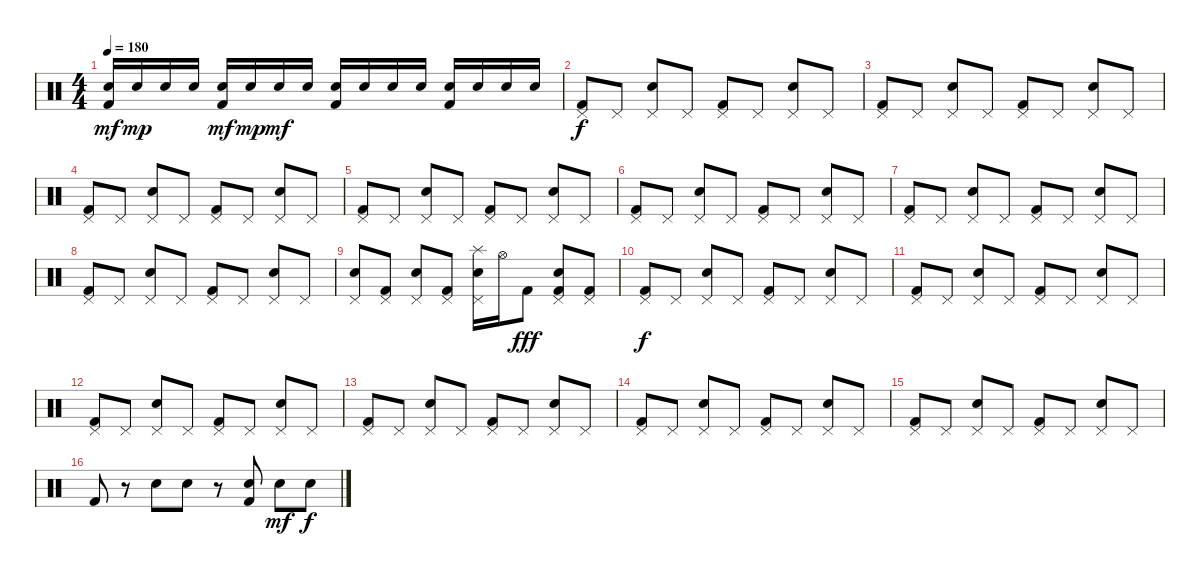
\track "" {instrument percussion}
\staff {score}
\articulation defaults
\ts (4 4)
\tempo 180
\clef neutral
\ks c
("Kick (hit) 2" "Snare (hit) 2").16{dy mf} "Snare (hit) 2".16{dy mp} "Snare (hit) 2".16 "Snare (hit) 2".16 ("Kick (hit) 2" "Snare (hit) 2").16{dy mf} "Snare (hit) 2".16{dy mp} "Snare (hit) 2".16{dy mf} "Snare (hit) 2".16 ("Kick (hit) 2" "Snare (hit) 2").16 "Snare (hit) 2".16 "Snare (hit) 2".16 "Snare (hit) 2".16 ("Kick (hit) 2" "Snare (hit) 2").16 "Snare (hit) 2".16 "Snare (hit) 2".16 "Snare (hit) 2".16 |
("Pedal Hi-Hat (hit)" "Kick (hit) 2").8{dy f} "Pedal Hi-Hat (hit)".8 ("Pedal Hi-Hat (hit)" "Snare (hit) 2").8 "Pedal Hi-Hat (hit)".8 ("Pedal Hi-Hat (hit)" "Kick (hit) 2").8 "Pedal Hi-Hat (hit)".8 ("Pedal Hi-Hat (hit)" "Snare (hit) 2").8 "Pedal Hi-Hat (hit)".8 |
("Pedal Hi-Hat (hit)" "Kick (hit) 2").8 "Pedal Hi-Hat (hit)".8 ("Pedal Hi-Hat (hit)" "Snare (hit) 2").8 "Pedal Hi-Hat (hit)".8 ("Pedal Hi-Hat (hit)" "Kick (hit) 2").8 "Pedal Hi-Hat (hit)".8 ("Pedal Hi-Hat (hit)" "Snare (hit) 2").8 "Pedal Hi-Hat (hit)".8 |
("Pedal Hi-Hat (hit)" "Kick (hit) 2").8 "Pedal Hi-Hat (hit)".8 ("Pedal Hi-Hat (hit)" "Snare (hit) 2").8 "Pedal Hi-Hat (hit)".8 ("Pedal Hi-Hat (hit)" "Kick (hit) 2").8 "Pedal Hi-Hat (hit)".8 ("Pedal Hi-Hat (hit)" "Snare (hit) 2").8 "Pedal Hi-Hat (hit)".8 |
("Pedal Hi-Hat (hit)" "Kick (hit) 2").8 "Pedal Hi-Hat (hit)".8 ("Pedal Hi-Hat (hit)" "Snare (hit) 2").8 "Pedal Hi-Hat (hit)".8 ("Pedal Hi-Hat (hit)" "Kick (hit) 2").8 "Pedal Hi-Hat (hit)".8 ("Pedal Hi-Hat (hit)" "Snare (hit) 2").8 "Pedal Hi-Hat (hit)".8 |
("Pedal Hi-Hat (hit)" "Kick (hit) 2").8 "Pedal Hi-Hat (hit)".8 ("Pedal Hi-Hat (hit)" "Snare (hit) 2").8 "Pedal Hi-Hat (hit)".8 ("Pedal Hi-Hat (hit)" "Kick (hit) 2").8 "Pedal Hi-Hat (hit)".8 ("Pedal Hi-Hat (hit)" "Snare (hit) 2").8 "Pedal Hi-Hat (hit)".8 |
("Pedal Hi-Hat (hit)" "Kick (hit) 2").8 "Pedal Hi-Hat (hit)".8 ("Pedal Hi-Hat (hit)" "Snare (hit) 2").8 "Pedal Hi-Hat (hit)".8 ("Pedal Hi-Hat (hit)" "Kick (hit) 2").8 "Pedal Hi-Hat (hit)".8 ("Pedal Hi-Hat (hit)" "Snare (hit) 2").8 "Pedal Hi-Hat (hit)".8 |
("Pedal Hi-Hat (hit)" "Kick (hit) 2").8 "Pedal Hi-Hat (hit)".8 ("Pedal Hi-Hat (hit)" "Snare (hit) 2").8 "Pedal Hi-Hat (hit)".8 ("Pedal Hi-Hat (hit)" "Kick (hit) 2").8 "Pedal Hi-Hat (hit)".8 ("Pedal Hi-Hat (hit)" "Snare (hit) 2").8 "Pedal Hi-Hat (hit)".8 |
("Pedal Hi-Hat (hit)" "Snare (hit) 2").8 ("Pedal Hi-Hat (hit)" "Kick (hit) 2").8 ("Pedal Hi-Hat (hit)" "Snare (hit) 2").8 ("Pedal Hi-Hat (hit)" "Kick (hit) 2").8 ("Splash (hit)" "Pedal Hi-Hat (hit)" "Snare (hit) 2").16 "Hi-Hat (open)".16 "Kick (hit) 2".8{dy fff} ("Pedal Hi-Hat (hit)" "Kick (hit) 2" "Snare (hit) 2").8 ("Pedal Hi-Hat (hit)" "Kick (hit) 2").8 |
("Pedal Hi-Hat (hit)" "Kick (hit) 2").8{dy f} "Pedal Hi-Hat (hit)".8 ("Pedal Hi-Hat (hit)" "Snare (hit) 2").8 "Pedal Hi-Hat (hit)".8 ("Pedal Hi-Hat (hit)" "Kick (hit) 2").8 "Pedal Hi-Hat (hit)".8 ("Pedal Hi-Hat (hit)" "Snare (hit) 2").8 "Pedal Hi-Hat (hit)".8 |
("Pedal Hi-Hat (hit)" "Kick (hit) 2").8 "Pedal Hi-Hat (hit)".8 ("Pedal Hi-Hat (hit)" "Snare (hit) 2").8 "Pedal Hi-Hat (hit)".8 ("Pedal Hi-Hat (hit)" "Kick (hit) 2").8 "Pedal Hi-Hat (hit)".8 ("Pedal Hi-Hat (hit)" "Snare (hit) 2").8 "Pedal Hi-Hat (hit)".8 |
("Pedal Hi-Hat (hit)" "Kick (hit) 2").8 "Pedal Hi-Hat (hit)".8 ("Pedal Hi-Hat (hit)" "Snare (hit) 2").8 "Pedal Hi-Hat (hit)".8 ("Pedal Hi-Hat (hit)" "Kick (hit) 2").8 "Pedal Hi-Hat (hit)".8 ("Pedal Hi-Hat (hit)" "Snare (hit) 2").8 "Pedal Hi-Hat (hit)".8 |
("Pedal Hi-Hat (hit)" "Kick (hit) 2").8 "Pedal Hi-Hat (hit)".8 ("Pedal Hi-Hat (hit)" "Snare (hit) 2").8 "Pedal Hi-Hat (hit)".8 ("Pedal Hi-Hat (hit)" "Kick (hit) 2").8 "Pedal Hi-Hat (hit)".8 ("Pedal Hi-Hat (hit)" "Snare (hit) 2").8 "Pedal Hi-Hat (hit)".8 |
("Pedal Hi-Hat (hit)" "Kick (hit) 2").8 "Pedal Hi-Hat (hit)".8 ("Pedal Hi-Hat (hit)" "Snare (hit) 2").8 "Pedal Hi-Hat (hit)".8 ("Pedal Hi-Hat (hit)" "Kick (hit) 2").8 "Pedal Hi-Hat (hit)".8 ("Pedal Hi-Hat (hit)" "Snare (hit) 2").8 "Pedal Hi-Hat (hit)".8 |
("Pedal Hi-Hat (hit)" "Kick (hit) 2").8 "Pedal Hi-Hat (hit)".8 ("Pedal Hi-Hat (hit)" "Snare (hit) 2").8 "Pedal Hi-Hat (hit)".8 ("Pedal Hi-Hat (hit)" "Kick (hit) 2").8 "Pedal Hi-Hat (hit)".8 ("Pedal Hi-Hat (hit)" "Snare (hit) 2").8 "Pedal Hi-Hat (hit)".8 |
"Kick (hit) 2".8 r.8 "Snare (hit) 2".8 "Snare (hit) 2".8 r.8 ("Kick (hit) 2" "Snare (hit) 2").8 "Snare (hit) 2".8{dy mf} "Snare (hit) 2".8{dy f}
